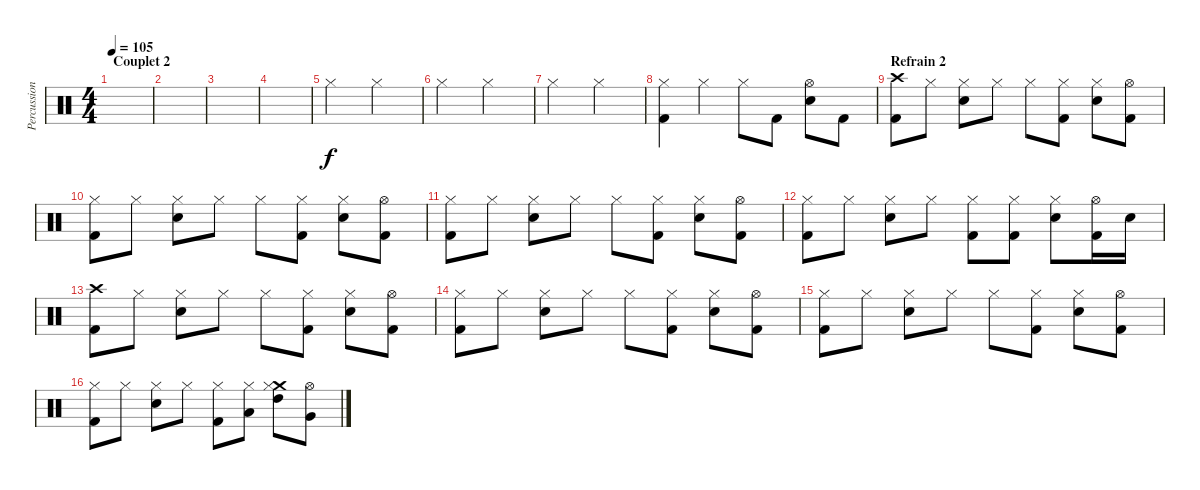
\track ("Percussions" "Percussion") {instrument percussion}
\staff {score}
\articulation defaults
\ts (4 4)
\section ("" "Couplet 2")
\tempo 105
\clef neutral
\ks c
|
|
|
|
"Hi-Hat (closed)".2 "Hi-Hat (closed)".2 |
"Hi-Hat (closed)".2 "Hi-Hat (closed)".2 |
"Hi-Hat (closed)".2 "Hi-Hat (closed)".2 |
("Kick (hit) 2" "Hi-Hat (closed)").4 "Hi-Hat (closed)".4 "Hi-Hat (closed)".8 "Kick (hit) 2".8 ("Snare (hit) 2" "Hi-Hat (open)").8 "Kick (hit) 2".8 |
\section ("" "Refrain 2")
("Kick (hit) 2" "Crash high (hit)").8 "Hi-Hat (closed)".8 ("Snare (hit) 2" "Hi-Hat (closed)").8 "Hi-Hat (closed)".8 "Hi-Hat (closed)".8 ("Kick (hit) 2" "Hi-Hat (closed)").8 ("Snare (hit) 2" "Hi-Hat (closed)").8 ("Kick (hit) 2" "Hi-Hat (open)").8 |
("Kick (hit) 2" "Hi-Hat (closed)").8 "Hi-Hat (closed)".8 ("Snare (hit) 2" "Hi-Hat (closed)").8 "Hi-Hat (closed)".8 "Hi-Hat (closed)".8 ("Kick (hit) 2" "Hi-Hat (closed)").8 ("Snare (hit) 2" "Hi-Hat (closed)").8 ("Kick (hit) 2" "Hi-Hat (open)").8 |
("Kick (hit) 2" "Hi-Hat (closed)").8 "Hi-Hat (closed)".8 ("Snare (hit) 2" "Hi-Hat (closed)").8 "Hi-Hat (closed)".8 "Hi-Hat (closed)".8 ("Kick (hit) 2" "Hi-Hat (closed)").8 ("Snare (hit) 2" "Hi-Hat (closed)").8 ("Kick (hit) 2" "Hi-Hat (open)").8 |
("Kick (hit) 2" "Hi-Hat (closed)").8 "Hi-Hat (closed)".8 ("Snare (hit) 2" "Hi-Hat (closed)").8 "Hi-Hat (closed)".8 ("Kick (hit) 2" "Hi-Hat (closed)").8 ("Kick (hit) 2" "Hi-Hat (closed)").8 ("Snare (hit) 2" "Hi-Hat (closed)").8 ("Kick (hit) 2" "Hi-Hat (open)").16 "Snare (hit) 2".16 |
("Kick (hit) 2" "Crash high (hit)").8 "Hi-Hat (closed)".8 ("Snare (hit) 2" "Hi-Hat (closed)").8 "Hi-Hat (closed)".8 "Hi-Hat (closed)".8 ("Kick (hit) 2" "Hi-Hat (closed)").8 ("Snare (hit) 2" "Hi-Hat (closed)").8 ("Kick (hit) 2" "Hi-Hat (open)").8 |
("Kick (hit) 2" "Hi-Hat (closed)").8 "Hi-Hat (closed)".8 ("Snare (hit) 2" "Hi-Hat (closed)").8 "Hi-Hat (closed)".8 "Hi-Hat (closed)".8 ("Kick (hit) 2" "Hi-Hat (closed)").8 ("Snare (hit) 2" "Hi-Hat (closed)").8 ("Kick (hit) 2" "Hi-Hat (open)").8 |
("Kick (hit) 2" "Hi-Hat (closed)").8 "Hi-Hat (closed)".8 ("Snare (hit) 2" "Hi-Hat (closed)").8 "Hi-Hat (closed)".8 "Hi-Hat (closed)".8 ("Kick (hit) 2" "Hi-Hat (closed)").8 ("Snare (hit) 2" "Hi-Hat (closed)").8 ("Kick (hit) 2" "Hi-Hat (open)").8 |
("Kick (hit) 2" "Hi-Hat (closed)").8 "Hi-Hat (closed)".8 ("Snare (hit) 2" "Hi-Hat (closed)").8 "Hi-Hat (closed)".8 ("Kick (hit) 2" "Hi-Hat (closed)").8 ("Low Tom (hit)" "Hi-Hat (closed)").8 ("Crash medium (hit)" "High Tom (hit)" "Hi-Hat (closed)").8 ("Very Low Tom (hit)" "Hi-Hat (open)").8
